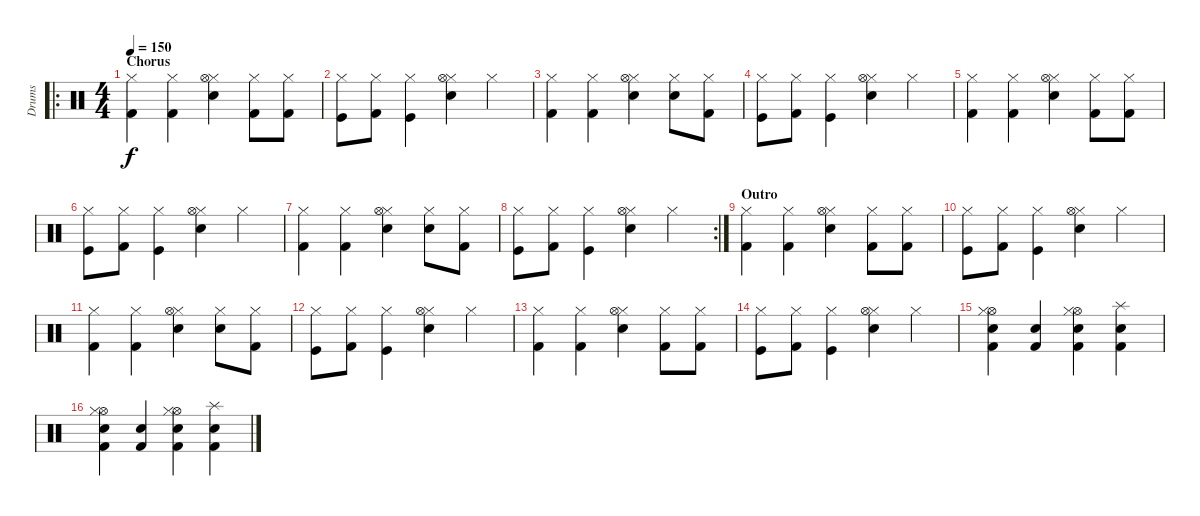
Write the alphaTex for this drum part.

\track ("Drums" "Drums") {instrument percussion}
\staff {score}
\articulation defaults
\ro
\ts (4 4)
\section ("" "Chorus")
\tempo 150
\clef neutral
\ks c
("Kick (hit) 2" "Hi-Hat (closed)").4{dy f} ("Kick (hit) 2" "Hi-Hat (closed)").4 ("Snare (hit) 2" "Hi-Hat (closed)" "Hi-Hat (open)").4 ("Kick (hit) 2" "Hi-Hat (closed)").8 ("Kick (hit) 2" "Hi-Hat (closed)").8 |
("Kick (hit)" "Hi-Hat (closed)").8 ("Kick (hit) 2" "Hi-Hat (closed)").8 ("Kick (hit)" "Hi-Hat (closed)").4 ("Snare (hit) 2" "Hi-Hat (closed)" "Hi-Hat (open)").4 "Hi-Hat (closed)".4 |
("Kick (hit) 2" "Hi-Hat (closed)").4 ("Kick (hit) 2" "Hi-Hat (closed)").4 ("Snare (hit) 2" "Hi-Hat (closed)" "Hi-Hat (open)").4 ("Snare (hit) 2" "Hi-Hat (closed)").8 ("Kick (hit) 2" "Hi-Hat (closed)").8 |
("Kick (hit)" "Hi-Hat (closed)").8 ("Kick (hit) 2" "Hi-Hat (closed)").8 ("Kick (hit)" "Hi-Hat (closed)").4 ("Snare (hit) 2" "Hi-Hat (closed)" "Hi-Hat (open)").4 "Hi-Hat (closed)".4 |
("Kick (hit) 2" "Hi-Hat (closed)").4 ("Kick (hit) 2" "Hi-Hat (closed)").4 ("Snare (hit) 2" "Hi-Hat (closed)" "Hi-Hat (open)").4 ("Kick (hit) 2" "Hi-Hat (closed)").8 ("Kick (hit) 2" "Hi-Hat (closed)").8 |
("Kick (hit)" "Hi-Hat (closed)").8 ("Kick (hit) 2" "Hi-Hat (closed)").8 ("Kick (hit)" "Hi-Hat (closed)").4 ("Snare (hit) 2" "Hi-Hat (closed)" "Hi-Hat (open)").4 "Hi-Hat (closed)".4 |
("Kick (hit) 2" "Hi-Hat (closed)").4 ("Kick (hit) 2" "Hi-Hat (closed)").4 ("Snare (hit) 2" "Hi-Hat (closed)" "Hi-Hat (open)").4 ("Snare (hit) 2" "Hi-Hat (closed)").8 ("Kick (hit) 2" "Hi-Hat (closed)").8 |
\rc 2
("Kick (hit)" "Hi-Hat (closed)").8 ("Kick (hit) 2" "Hi-Hat (closed)").8 ("Kick (hit)" "Hi-Hat (closed)").4 ("Snare (hit) 2" "Hi-Hat (closed)" "Hi-Hat (open)").4 "Hi-Hat (closed)".4 |
\section ("" "Outro")
("Kick (hit) 2" "Hi-Hat (closed)").4 ("Kick (hit) 2" "Hi-Hat (closed)").4 ("Snare (hit) 2" "Hi-Hat (closed)" "Hi-Hat (open)").4 ("Kick (hit) 2" "Hi-Hat (closed)").8 ("Kick (hit) 2" "Hi-Hat (closed)").8 |
("Kick (hit)" "Hi-Hat (closed)").8 ("Kick (hit) 2" "Hi-Hat (closed)").8 ("Kick (hit)" "Hi-Hat (closed)").4 ("Snare (hit) 2" "Hi-Hat (closed)" "Hi-Hat (open)").4 "Hi-Hat (closed)".4 |
("Kick (hit) 2" "Hi-Hat (closed)").4 ("Kick (hit) 2" "Hi-Hat (closed)").4 ("Snare (hit) 2" "Hi-Hat (closed)" "Hi-Hat (open)").4 ("Snare (hit) 2" "Hi-Hat (closed)").8 ("Kick (hit) 2" "Hi-Hat (closed)").8 |
("Kick (hit)" "Hi-Hat (closed)").8 ("Kick (hit) 2" "Hi-Hat (closed)").8 ("Kick (hit)" "Hi-Hat (closed)").4 ("Snare (hit) 2" "Hi-Hat (closed)" "Hi-Hat (open)").4 "Hi-Hat (closed)".4 |
("Kick (hit) 2" "Hi-Hat (closed)").4 ("Kick (hit) 2" "Hi-Hat (closed)").4 ("Snare (hit) 2" "Hi-Hat (closed)" "Hi-Hat (open)").4 ("Kick (hit) 2" "Hi-Hat (closed)").8 ("Kick (hit) 2" "Hi-Hat (closed)").8 |
("Kick (hit)" "Hi-Hat (closed)").8 ("Kick (hit) 2" "Hi-Hat (closed)").8 ("Kick (hit)" "Hi-Hat (closed)").4 ("Snare (hit) 2" "Hi-Hat (closed)" "Hi-Hat (open)").4 "Hi-Hat (closed)".4 |
("Kick (hit) 2" "Hi-Hat (open)" "Hi-Hat (closed)" "Snare (hit) 2").4 ("Kick (hit) 2" "Snare (hit) 2").4 ("Kick (hit) 2" "Hi-Hat (open)" "Hi-Hat (closed)" "Snare (hit) 2").4 ("Splash (hit)" "Kick (hit) 2" "Snare (hit) 2").4 |
("Kick (hit) 2" "Hi-Hat (open)" "Hi-Hat (closed)" "Snare (hit) 2").4 ("Kick (hit) 2" "Snare (hit) 2").4 ("Kick (hit) 2" "Hi-Hat (open)" "Hi-Hat (closed)" "Snare (hit) 2").4 ("Splash (hit)" "Kick (hit) 2" "Snare (hit) 2").4
